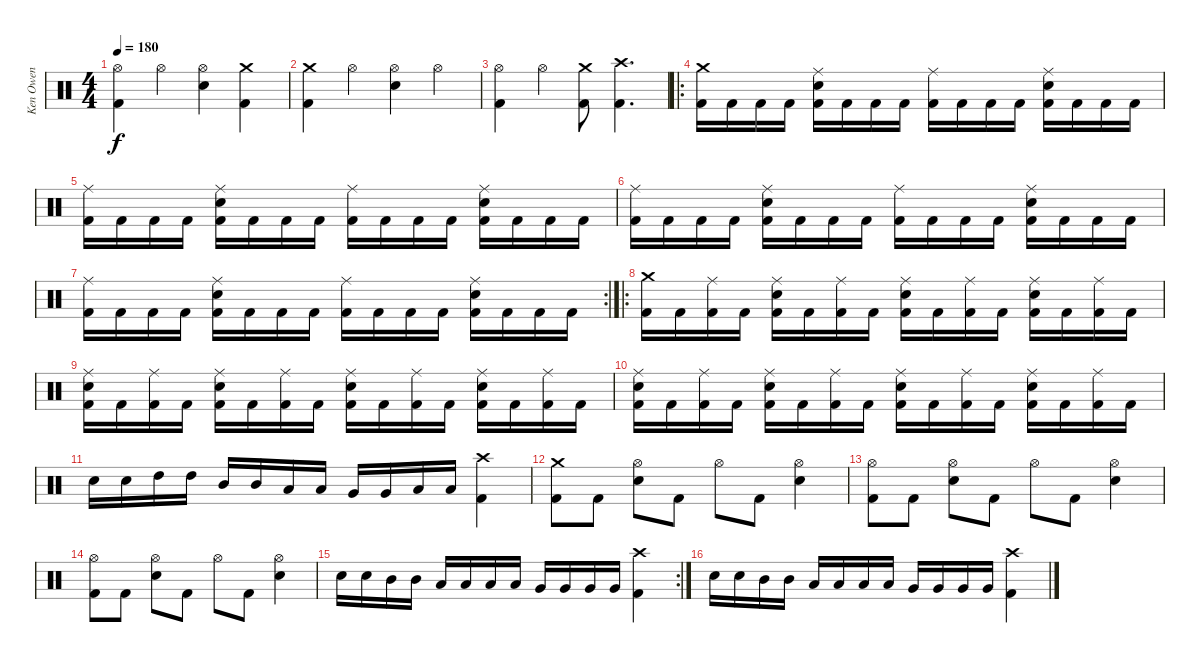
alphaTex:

\track ("Ken Owen" "Ken Owen") {instrument percussion}
\staff {score}
\articulation defaults
\ts (4 4)
\tempo 180
\clef neutral
\ks c
("Hi-Hat (open)" "Kick (hit) 2").4{dy f} "Hi-Hat (open)".4 ("Hi-Hat (open)" "Snare (hit) 2").4 ("Crash medium (hit)" "Kick (hit) 2").4 |
("Crash medium (hit)" "Kick (hit) 2").4 "Hi-Hat (open)".4 ("Hi-Hat (open)" "Snare (hit) 2").4 "Hi-Hat (open)".4 |
("Hi-Hat (open)" "Kick (hit) 2").4 "Hi-Hat (open)".4 ("Crash medium (hit)" "Kick (hit) 2").8 ("Crash high (hit)" "Kick (hit) 2").4{d} |
\ro
("Crash medium (hit)" "Kick (hit) 2").16 "Kick (hit) 2".16 "Kick (hit) 2".16 "Kick (hit) 2".16 ("Ride (middle)" "Snare (hit) 2" "Kick (hit) 2").16 "Kick (hit) 2".16 "Kick (hit) 2".16 "Kick (hit) 2".16 ("Ride (middle)" "Kick (hit) 2").16 "Kick (hit) 2".16 "Kick (hit) 2".16 "Kick (hit) 2".16 ("Ride (middle)" "Snare (hit) 2" "Kick (hit) 2").16 "Kick (hit) 2".16 "Kick (hit) 2".16 "Kick (hit) 2".16 |
("Ride (middle)" "Kick (hit) 2").16 "Kick (hit) 2".16 "Kick (hit) 2".16 "Kick (hit) 2".16 ("Ride (middle)" "Snare (hit) 2" "Kick (hit) 2").16 "Kick (hit) 2".16 "Kick (hit) 2".16 "Kick (hit) 2".16 ("Ride (middle)" "Kick (hit) 2").16 "Kick (hit) 2".16 "Kick (hit) 2".16 "Kick (hit) 2".16 ("Ride (middle)" "Snare (hit) 2" "Kick (hit) 2").16 "Kick (hit) 2".16 "Kick (hit) 2".16 "Kick (hit) 2".16 |
("Ride (middle)" "Kick (hit) 2").16 "Kick (hit) 2".16 "Kick (hit) 2".16 "Kick (hit) 2".16 ("Ride (middle)" "Snare (hit) 2" "Kick (hit) 2").16 "Kick (hit) 2".16 "Kick (hit) 2".16 "Kick (hit) 2".16 ("Ride (middle)" "Kick (hit) 2").16 "Kick (hit) 2".16 "Kick (hit) 2".16 "Kick (hit) 2".16 ("Ride (middle)" "Snare (hit) 2" "Kick (hit) 2").16 "Kick (hit) 2".16 "Kick (hit) 2".16 "Kick (hit) 2".16 |
\rc 2
("Ride (middle)" "Kick (hit) 2").16 "Kick (hit) 2".16 "Kick (hit) 2".16 "Kick (hit) 2".16 ("Ride (middle)" "Snare (hit) 2" "Kick (hit) 2").16 "Kick (hit) 2".16 "Kick (hit) 2".16 "Kick (hit) 2".16 ("Ride (middle)" "Kick (hit) 2").16 "Kick (hit) 2".16 "Kick (hit) 2".16 "Kick (hit) 2".16 ("Ride (middle)" "Snare (hit) 2" "Kick (hit) 2").16 "Kick (hit) 2".16 "Kick (hit) 2".16 "Kick (hit) 2".16 |
\ro
("Crash medium (hit)" "Kick (hit) 2").16 "Kick (hit) 2".16 ("Ride (middle)" "Kick (hit) 2").16 "Kick (hit) 2".16 ("Ride (middle)" "Snare (hit) 2" "Kick (hit) 2").16 "Kick (hit) 2".16 ("Ride (middle)" "Kick (hit) 2").16 "Kick (hit) 2".16 ("Ride (middle)" "Snare (hit) 2" "Kick (hit) 2").16 "Kick (hit) 2".16 ("Ride (middle)" "Kick (hit) 2").16 "Kick (hit) 2".16 ("Ride (middle)" "Snare (hit) 2" "Kick (hit) 2").16 "Kick (hit) 2".16 ("Ride (middle)" "Kick (hit) 2").16 "Kick (hit) 2".16 |
("Ride (middle)" "Snare (hit) 2" "Kick (hit) 2").16 "Kick (hit) 2".16 ("Ride (middle)" "Kick (hit) 2").16 "Kick (hit) 2".16 ("Ride (middle)" "Snare (hit) 2" "Kick (hit) 2").16 "Kick (hit) 2".16 ("Ride (middle)" "Kick (hit) 2").16 "Kick (hit) 2".16 ("Ride (middle)" "Snare (hit) 2" "Kick (hit) 2").16 "Kick (hit) 2".16 ("Ride (middle)" "Kick (hit) 2").16 "Kick (hit) 2".16 ("Ride (middle)" "Snare (hit) 2" "Kick (hit) 2").16 "Kick (hit) 2".16 ("Ride (middle)" "Kick (hit) 2").16 "Kick (hit) 2".16 |
("Ride (middle)" "Snare (hit) 2" "Kick (hit) 2").16 "Kick (hit) 2".16 ("Ride (middle)" "Kick (hit) 2").16 "Kick (hit) 2".16 ("Ride (middle)" "Snare (hit) 2" "Kick (hit) 2").16 "Kick (hit) 2".16 ("Ride (middle)" "Kick (hit) 2").16 "Kick (hit) 2".16 ("Ride (middle)" "Snare (hit) 2" "Kick (hit) 2").16 "Kick (hit) 2".16 ("Ride (middle)" "Kick (hit) 2").16 "Kick (hit) 2".16 ("Ride (middle)" "Snare (hit) 2" "Kick (hit) 2").16 "Kick (hit) 2".16 ("Ride (middle)" "Kick (hit) 2").16 "Kick (hit) 2".16 |
"Snare (hit) 2".16 "Snare (hit) 2".16 "High Tom (hit)".16 "High Tom (hit)".16 "Mid Tom (hit)".16 "Mid Tom (hit)".16 "Low Tom (hit)".16 "Low Tom (hit)".16 "Very Low Tom (hit)".16 "Very Low Tom (hit)".16 "Low Floor Tom (hit)".16 "Low Floor Tom (hit)".16 ("Crash high (hit)" "Kick (hit) 2").4 |
("Crash medium (hit)" "Kick (hit) 2").8 "Kick (hit) 2".8 ("Hi-Hat (open)" "Snare (hit) 2").8 "Kick (hit) 2".8 "Hi-Hat (open)".8 "Kick (hit) 2".8 ("Hi-Hat (open)" "Snare (hit) 2").4 |
("Hi-Hat (open)" "Kick (hit) 2").8 "Kick (hit) 2".8 ("Hi-Hat (open)" "Snare (hit) 2").8 "Kick (hit) 2".8 "Hi-Hat (open)".8 "Kick (hit) 2".8 ("Hi-Hat (open)" "Snare (hit) 2").4 |
("Hi-Hat (open)" "Kick (hit) 2").8 "Kick (hit) 2".8 ("Hi-Hat (open)" "Snare (hit) 2").8 "Kick (hit) 2".8 "Hi-Hat (open)".8 "Kick (hit) 2".8 ("Hi-Hat (open)" "Snare (hit) 2").4 |
\rc 2 "Snare (hit) 2".16 "Snare (hit) 2".16 "Mid Tom (hit)".16 "Mid Tom (hit)".16 "Low Tom (hit)".16 "Low Tom (hit)".16 "Low Tom (hit)".16 "Low Tom (hit)".16 "Very Low Tom (hit)".16 "Very Low Tom (hit)".16 "Very Low Tom (hit)".16 "Very Low Tom (hit)".16
("Crash high (hit)" "Kick (hit) 2").4 |
"Snare (hit) 2".16 "Snare (hit) 2".16 "Mid Tom (hit)".16 "Mid Tom (hit)".16 "Low Tom (hit)".16 "Low Tom (hit)".16 "Low Tom (hit)".16 "Low Tom (hit)".16 "Very Low Tom (hit)".16 "Very Low Tom (hit)".16 "Very Low Tom (hit)".16 "Very Low Tom (hit)".16 ("Crash high (hit)" "Kick (hit) 2").4
